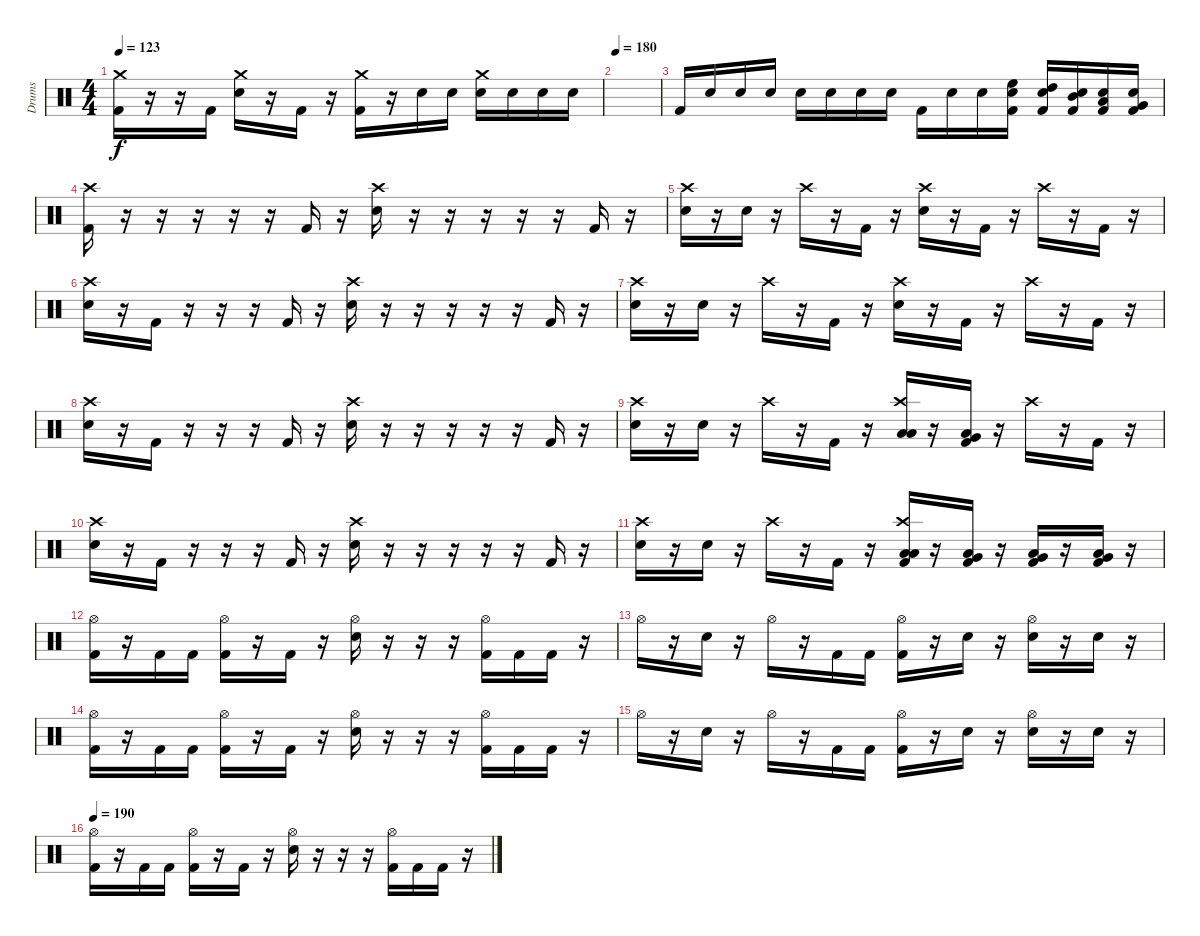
\track ("Drums" "Drums") {instrument percussion}
\staff {score}
\articulation defaults
\ts (4 4)
\tempo 123
\clef neutral
\ks c
("Crash medium (hit)" "Kick (hit) 2").16{dy f} r.16 r.16 "Kick (hit) 2".16 ("Crash medium (hit)" "Electric Snare (hit)").16 r.16 "Kick (hit) 2".16 r.16 ("Crash medium (hit)" "Kick (hit) 2").16 r.16 "Electric Snare (hit)".16 "Electric Snare (hit)".16 ("Crash medium (hit)" "Electric Snare (hit)").16 "Electric Snare (hit)".16 "Electric Snare (hit)".16 "Electric Snare (hit)".16 |
\tempo 180
|
"Kick (hit) 2".16 "Snare (hit) 2".16 "Snare (hit) 2".16 "Snare (hit) 2".16 "Snare (hit) 2".16 "Snare (hit) 2".16 "Snare (hit) 2".16 "Snare (hit) 2".16 "Kick (hit) 2".16 "Snare (hit) 2".16 "Snare (hit) 2".16 ("High Floor Tom (hit)" "Electric Snare (hit)" "Kick (hit) 2").16 ("High Tom (hit)" "Electric Snare (hit)" "Kick (hit) 2").16 ("Mid Tom (hit)" "Electric Snare (hit)" "Kick (hit) 2").16 ("Low Tom (hit)" "Electric Snare (hit)" "Kick (hit) 2").16 ("Very Low Tom (hit)" "Electric Snare (hit)" "Kick (hit) 2").16 |
("Crash high (hit)" "Kick (hit) 2").16 r.16 r.16 r.16 r.16 r.16 "Kick (hit) 2".16 r.16 ("Crash high (hit)" "Electric Snare (hit)").16 r.16 r.16 r.16 r.16 r.16 "Kick (hit) 2".16 r.16 |
("Crash high (hit)" "Electric Snare (hit)").16 r.16 "Electric Snare (hit)".16 r.16 "Crash high (hit)".16 r.16 "Kick (hit) 2".16 r.16 ("Crash high (hit)" "Electric Snare (hit)").16 r.16 "Kick (hit) 2".16 r.16 "Crash high (hit)".16 r.16 "Kick (hit) 2".16 r.16 |
("Crash high (hit)" "Electric Snare (hit)").16 r.16 "Kick (hit) 2".16 r.16 r.16 r.16 "Kick (hit) 2".16 r.16 ("Crash high (hit)" "Electric Snare (hit)").16 r.16 r.16 r.16 r.16 r.16 "Kick (hit) 2".16 r.16 |
("Crash high (hit)" "Electric Snare (hit)").16 r.16 "Electric Snare (hit)".16 r.16 "Crash high (hit)".16 r.16 "Kick (hit) 2".16 r.16 ("Crash high (hit)" "Electric Snare (hit)").16 r.16 "Kick (hit) 2".16 r.16 "Crash high (hit)".16 r.16 "Kick (hit) 2".16 r.16 |
("Crash high (hit)" "Electric Snare (hit)").16 r.16 "Kick (hit) 2".16 r.16 r.16 r.16 "Kick (hit) 2".16 r.16 ("Crash high (hit)" "Electric Snare (hit)").16 r.16 r.16 r.16 r.16 r.16 "Kick (hit) 2".16 r.16 |
("Crash high (hit)" "Electric Snare (hit)").16 r.16 "Electric Snare (hit)".16 r.16 "Crash high (hit)".16 r.16 "Kick (hit) 2".16 r.16 ("Crash high (hit)" "Low Tom (hit)" "Low Floor Tom (hit)").16 r.16 ("Low Floor Tom (hit)" "Very Low Tom (hit)" "Kick (hit) 2").16 r.16 "Crash high (hit)".16 r.16 "Kick (hit) 2".16 r.16 |
("Crash high (hit)" "Electric Snare (hit)").16 r.16 "Kick (hit) 2".16 r.16 r.16 r.16 "Kick (hit) 2".16 r.16 ("Crash high (hit)" "Electric Snare (hit)").16 r.16 r.16 r.16 r.16 r.16 "Kick (hit) 2".16 r.16 |
("Crash high (hit)" "Electric Snare (hit)").16 r.16 "Electric Snare (hit)".16 r.16 "Crash high (hit)".16 r.16 "Kick (hit) 2".16 r.16 ("Crash high (hit)" "Low Tom (hit)" "Low Floor Tom (hit)" "Kick (hit) 2").16 r.16 ("Low Floor Tom (hit)" "Very Low Tom (hit)" "Kick (hit) 2").16 r.16 ("Very Low Tom (hit)" "Low Floor Tom (hit)" "Kick (hit) 2").16 r.16 ("Low Floor Tom (hit)" "Very Low Tom (hit)" "Kick (hit) 2").16 r.16 |
("Hi-Hat (open)" "Kick (hit) 2").16 r.16 "Kick (hit) 2".16 "Kick (hit) 2".16 ("Hi-Hat (open)" "Kick (hit) 2").16 r.16 "Kick (hit) 2".16 r.16 ("Hi-Hat (open)" "Electric Snare (hit)").16 r.16 r.16 r.16 ("Hi-Hat (open)" "Kick (hit) 2").16 "Kick (hit) 2".16 "Kick (hit) 2".16 r.16 |
"Hi-Hat (open)".16 r.16 "Electric Snare (hit)".16 r.16 "Hi-Hat (open)".16 r.16 "Kick (hit) 2".16 "Kick (hit) 2".16 ("Hi-Hat (open)" "Kick (hit) 2").16 r.16 "Electric Snare (hit)".16 r.16 ("Hi-Hat (open)" "Electric Snare (hit)").16 r.16 "Electric Snare (hit)".16 r.16 |
("Hi-Hat (open)" "Kick (hit) 2").16 r.16 "Kick (hit) 2".16 "Kick (hit) 2".16 ("Hi-Hat (open)" "Kick (hit) 2").16 r.16 "Kick (hit) 2".16 r.16 ("Hi-Hat (open)" "Electric Snare (hit)").16 r.16 r.16 r.16 ("Hi-Hat (open)" "Kick (hit) 2").16 "Kick (hit) 2".16 "Kick (hit) 2".16 r.16 |
"Hi-Hat (open)".16 r.16 "Electric Snare (hit)".16 r.16 "Hi-Hat (open)".16 r.16 "Kick (hit) 2".16 "Kick (hit) 2".16 ("Hi-Hat (open)" "Kick (hit) 2").16 r.16 "Electric Snare (hit)".16 r.16 ("Hi-Hat (open)" "Electric Snare (hit)").16 r.16 "Electric Snare (hit)".16 r.16 |
\tempo 190
("Hi-Hat (open)" "Kick (hit) 2").16 r.16 "Kick (hit) 2".16 "Kick (hit) 2".16 ("Hi-Hat (open)" "Kick (hit) 2").16 r.16 "Kick (hit) 2".16 r.16 ("Hi-Hat (open)" "Electric Snare (hit)").16 r.16 r.16 r.16 ("Hi-Hat (open)" "Kick (hit) 2").16 "Kick (hit) 2".16 "Kick (hit) 2".16 r.16
